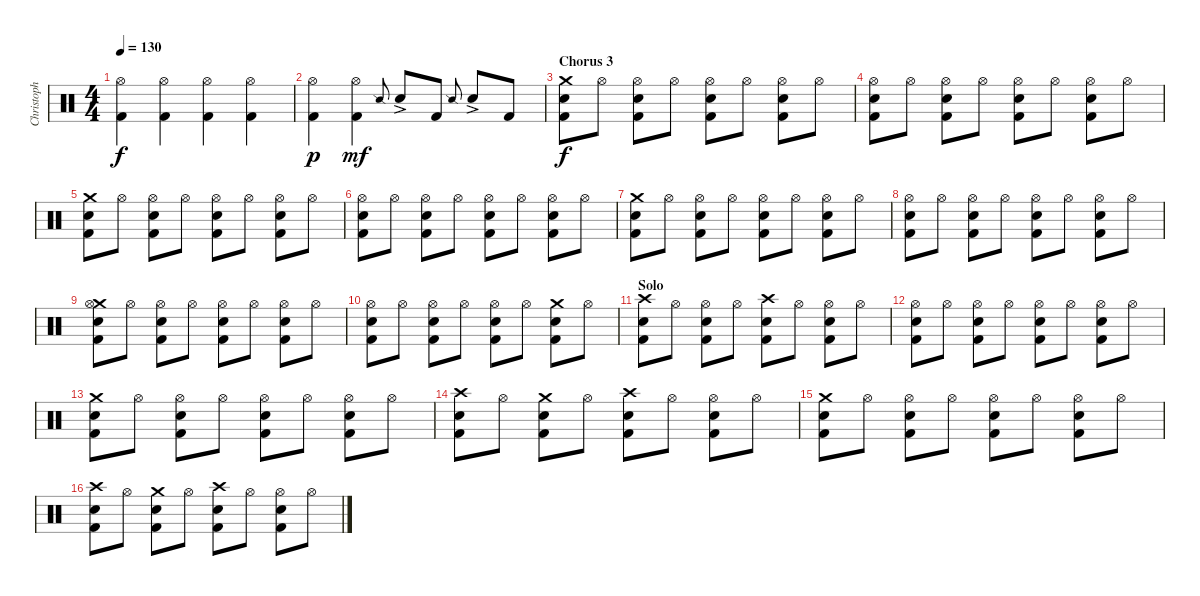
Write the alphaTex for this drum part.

\track ("Christoph Schneider" "Christoph ") {instrument percussion}
\staff {score}
\articulation defaults
\ts (4 4)
\tempo 130
\clef neutral
\ks c
("Hi-Hat (open)" "Kick (hit) 2").4{dy f} ("Hi-Hat (open)" "Kick (hit) 2").4 ("Hi-Hat (open)" "Kick (hit) 2").4 ("Hi-Hat (open)" "Kick (hit) 2").4 |
("Hi-Hat (open)" "Kick (hit) 2").4{dy p} ("Hi-Hat (open)" "Kick (hit) 2").4{dy mf} "Snare (side stick) 2".8{gr onbeat} "Snare (hit) 2"{ac}.8 "Kick (hit) 2".8 "Snare (side stick) 2".8{gr onbeat} "Snare (hit) 2"{ac}.8 "Kick (hit) 2".8 |
\section ("" "Chorus 3")
("Crash medium (hit)" "Snare (hit) 2" "Kick (hit) 2").8{dy f} "Hi-Hat (open)".8 ("Hi-Hat (open)" "Snare (hit) 2" "Kick (hit) 2").8 "Hi-Hat (open)".8 ("Hi-Hat (open)" "Snare (hit) 2" "Kick (hit) 2").8 "Hi-Hat (open)".8 ("Hi-Hat (open)" "Snare (hit) 2" "Kick (hit) 2").8 "Hi-Hat (open)".8 |
("Hi-Hat (open)" "Snare (hit) 2" "Kick (hit) 2").8 "Hi-Hat (open)".8 ("Hi-Hat (open)" "Snare (hit) 2" "Kick (hit) 2").8 "Hi-Hat (open)".8 ("Hi-Hat (open)" "Snare (hit) 2" "Kick (hit) 2").8 "Hi-Hat (open)".8 ("Hi-Hat (open)" "Snare (hit) 2" "Kick (hit) 2").8 "Hi-Hat (open)".8 |
("Crash medium (hit)" "Snare (hit) 2" "Kick (hit) 2").8 "Hi-Hat (open)".8 ("Hi-Hat (open)" "Snare (hit) 2" "Kick (hit) 2").8 "Hi-Hat (open)".8 ("Hi-Hat (open)" "Snare (hit) 2" "Kick (hit) 2").8 "Hi-Hat (open)".8 ("Hi-Hat (open)" "Snare (hit) 2" "Kick (hit) 2").8 "Hi-Hat (open)".8 |
("Hi-Hat (open)" "Snare (hit) 2" "Kick (hit) 2").8 "Hi-Hat (open)".8 ("Hi-Hat (open)" "Snare (hit) 2" "Kick (hit) 2").8 "Hi-Hat (open)".8 ("Hi-Hat (open)" "Snare (hit) 2" "Kick (hit) 2").8 "Hi-Hat (open)".8 ("Hi-Hat (open)" "Snare (hit) 2" "Kick (hit) 2").8 "Hi-Hat (open)".8 |
("Crash medium (hit)" "Snare (hit) 2" "Kick (hit) 2").8 "Hi-Hat (open)".8 ("Hi-Hat (open)" "Snare (hit) 2" "Kick (hit) 2").8 "Hi-Hat (open)".8 ("Hi-Hat (open)" "Snare (hit) 2" "Kick (hit) 2").8 "Hi-Hat (open)".8 ("Hi-Hat (open)" "Snare (hit) 2" "Kick (hit) 2").8 "Hi-Hat (open)".8 |
("Hi-Hat (open)" "Snare (hit) 2" "Kick (hit) 2").8 "Hi-Hat (open)".8 ("Hi-Hat (open)" "Snare (hit) 2" "Kick (hit) 2").8 "Hi-Hat (open)".8 ("Hi-Hat (open)" "Snare (hit) 2" "Kick (hit) 2").8 "Hi-Hat (open)".8 ("Hi-Hat (open)" "Snare (hit) 2" "Kick (hit) 2").8 "Hi-Hat (open)".8 |
("Crash medium (hit)" "Hi-Hat (open)" "Snare (hit) 2" "Kick (hit) 2").8 "Hi-Hat (open)".8 ("Hi-Hat (open)" "Snare (hit) 2" "Kick (hit) 2").8 "Hi-Hat (open)".8 ("Hi-Hat (open)" "Snare (hit) 2" "Kick (hit) 2").8 "Hi-Hat (open)".8 ("Hi-Hat (open)" "Snare (hit) 2" "Kick (hit) 2").8 "Hi-Hat (open)".8 |
("Hi-Hat (open)" "Snare (hit) 2" "Kick (hit) 2").8 "Hi-Hat (open)".8 ("Hi-Hat (open)" "Snare (hit) 2" "Kick (hit) 2").8 "Hi-Hat (open)".8 ("Hi-Hat (open)" "Snare (hit) 2" "Kick (hit) 2").8 "Hi-Hat (open)".8 ("Crash medium (hit)" "Snare (hit) 2" "Kick (hit) 2").8 "Hi-Hat (open)".8 |
\section ("" "Solo")
("Crash high (hit)" "Snare (hit) 2" "Kick (hit) 2").8 "Hi-Hat (open)".8 ("Hi-Hat (open)" "Snare (hit) 2" "Kick (hit) 2").8 "Hi-Hat (open)".8 ("Crash high (hit)" "Snare (hit) 2" "Kick (hit) 2").8 "Hi-Hat (open)".8 ("Hi-Hat (open)" "Snare (hit) 2" "Kick (hit) 2").8 "Hi-Hat (open)".8 |
("Hi-Hat (open)" "Snare (hit) 2" "Kick (hit) 2").8 "Hi-Hat (open)".8 ("Hi-Hat (open)" "Snare (hit) 2" "Kick (hit) 2").8 "Hi-Hat (open)".8 ("Hi-Hat (open)" "Snare (hit) 2" "Kick (hit) 2").8 "Hi-Hat (open)".8 ("Hi-Hat (open)" "Snare (hit) 2" "Kick (hit) 2").8 "Hi-Hat (open)".8 |
("Crash medium (hit)" "Snare (hit) 2" "Kick (hit) 2").8 "Hi-Hat (open)".8 ("Hi-Hat (open)" "Snare (hit) 2" "Kick (hit) 2").8 "Hi-Hat (open)".8 ("Hi-Hat (open)" "Snare (hit) 2" "Kick (hit) 2").8 "Hi-Hat (open)".8 ("Hi-Hat (open)" "Snare (hit) 2" "Kick (hit) 2").8 "Hi-Hat (open)".8 |
("Crash high (hit)" "Snare (hit) 2" "Kick (hit) 2").8 "Hi-Hat (open)".8 ("Crash medium (hit)" "Snare (hit) 2" "Kick (hit) 2").8 "Hi-Hat (open)".8 ("Crash high (hit)" "Snare (hit) 2" "Kick (hit) 2").8 "Hi-Hat (open)".8 ("Hi-Hat (open)" "Snare (hit) 2" "Kick (hit) 2").8 "Hi-Hat (open)".8 |
("Crash medium (hit)" "Snare (hit) 2" "Kick (hit) 2").8 "Hi-Hat (open)".8 ("Hi-Hat (open)" "Snare (hit) 2" "Kick (hit) 2").8 "Hi-Hat (open)".8 ("Hi-Hat (open)" "Snare (hit) 2" "Kick (hit) 2").8 "Hi-Hat (open)".8 ("Hi-Hat (open)" "Snare (hit) 2" "Kick (hit) 2").8 "Hi-Hat (open)".8 |
("Crash high (hit)" "Snare (hit) 2" "Kick (hit) 2").8 "Hi-Hat (open)".8 ("Crash medium (hit)" "Snare (hit) 2" "Kick (hit) 2").8 "Hi-Hat (open)".8 ("Crash high (hit)" "Snare (hit) 2" "Kick (hit) 2").8 "Hi-Hat (open)".8 ("Hi-Hat (open)" "Snare (hit) 2" "Kick (hit) 2").8 "Hi-Hat (open)".8
